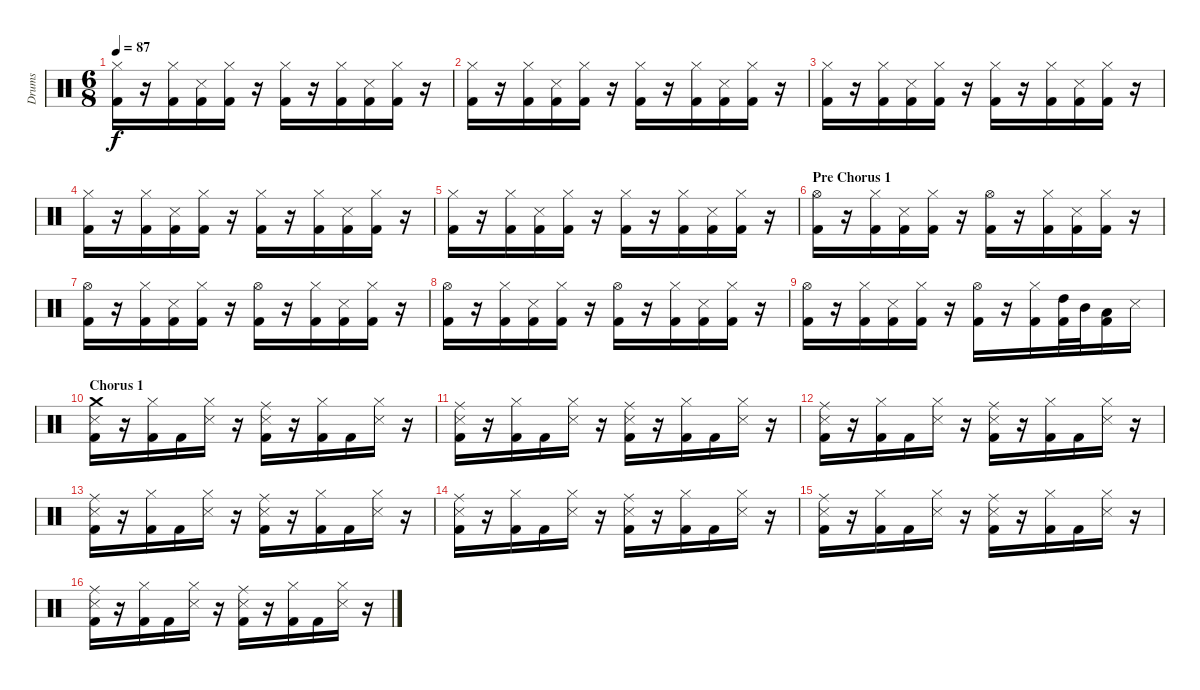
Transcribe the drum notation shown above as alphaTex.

\track ("Drums" "Drums") {instrument percussion}
\staff {score}
\articulation defaults
\ts (6 8)
\tempo 87
\clef neutral
\ks c
("Hi-Hat (closed)" "Kick (hit) 2").16{dy f} r.16 ("Hi-Hat (closed)" "Kick (hit) 2").16 ("Snare (side stick) 3" "Kick (hit) 2").16 ("Hi-Hat (closed)" "Kick (hit) 2").16 r.16 ("Hi-Hat (closed)" "Kick (hit) 2").16 r.16 ("Hi-Hat (closed)" "Kick (hit) 2").16 ("Snare (side stick) 3" "Kick (hit) 2").16 ("Hi-Hat (closed)" "Kick (hit) 2").16 r.16 |
("Hi-Hat (closed)" "Kick (hit) 2").16 r.16 ("Hi-Hat (closed)" "Kick (hit) 2").16 ("Snare (side stick) 3" "Kick (hit) 2").16 ("Hi-Hat (closed)" "Kick (hit) 2").16 r.16 ("Hi-Hat (closed)" "Kick (hit) 2").16 r.16 ("Hi-Hat (closed)" "Kick (hit) 2").16 ("Snare (side stick) 3" "Kick (hit) 2").16 ("Hi-Hat (closed)" "Kick (hit) 2").16 r.16 |
("Hi-Hat (closed)" "Kick (hit) 2").16 r.16 ("Hi-Hat (closed)" "Kick (hit) 2").16 ("Snare (side stick) 3" "Kick (hit) 2").16 ("Hi-Hat (closed)" "Kick (hit) 2").16 r.16 ("Hi-Hat (closed)" "Kick (hit) 2").16 r.16 ("Hi-Hat (closed)" "Kick (hit) 2").16 ("Snare (side stick) 3" "Kick (hit) 2").16 ("Hi-Hat (closed)" "Kick (hit) 2").16 r.16 |
("Hi-Hat (closed)" "Kick (hit) 2").16 r.16 ("Hi-Hat (closed)" "Kick (hit) 2").16 ("Snare (side stick) 3" "Kick (hit) 2").16 ("Hi-Hat (closed)" "Kick (hit) 2").16 r.16 ("Hi-Hat (closed)" "Kick (hit) 2").16 r.16 ("Hi-Hat (closed)" "Kick (hit) 2").16 ("Snare (side stick) 3" "Kick (hit) 2").16 ("Hi-Hat (closed)" "Kick (hit) 2").16 r.16 |
("Hi-Hat (closed)" "Kick (hit) 2").16 r.16 ("Hi-Hat (closed)" "Kick (hit) 2").16 ("Snare (side stick) 3" "Kick (hit) 2").16 ("Hi-Hat (closed)" "Kick (hit) 2").16 r.16 ("Hi-Hat (closed)" "Kick (hit) 2").16 r.16 ("Hi-Hat (closed)" "Kick (hit) 2").16 ("Snare (side stick) 3" "Kick (hit) 2").16 ("Hi-Hat (closed)" "Kick (hit) 2").16 r.16 |
\section ("" "Pre Chorus 1")
("Hi-Hat (open)" "Kick (hit) 2").16 r.16 ("Hi-Hat (closed)" "Kick (hit) 2").16 ("Snare (side stick) 3" "Kick (hit) 2").16 ("Hi-Hat (closed)" "Kick (hit) 2").16 r.16 ("Hi-Hat (open)" "Kick (hit) 2").16 r.16 ("Hi-Hat (closed)" "Kick (hit) 2").16 ("Snare (side stick) 3" "Kick (hit) 2").16 ("Hi-Hat (closed)" "Kick (hit) 2").16 r.16 |
("Hi-Hat (open)" "Kick (hit) 2").16 r.16 ("Hi-Hat (closed)" "Kick (hit) 2").16 ("Snare (side stick) 3" "Kick (hit) 2").16 ("Hi-Hat (closed)" "Kick (hit) 2").16 r.16 ("Hi-Hat (open)" "Kick (hit) 2").16 r.16 ("Hi-Hat (closed)" "Kick (hit) 2").16 ("Snare (side stick) 3" "Kick (hit) 2").16 ("Hi-Hat (closed)" "Kick (hit) 2").16 r.16 |
("Hi-Hat (open)" "Kick (hit) 2").16 r.16 ("Hi-Hat (closed)" "Kick (hit) 2").16 ("Snare (side stick) 3" "Kick (hit) 2").16 ("Hi-Hat (closed)" "Kick (hit) 2").16 r.16 ("Hi-Hat (open)" "Kick (hit) 2").16 r.16 ("Hi-Hat (closed)" "Kick (hit) 2").16 ("Snare (side stick) 3" "Kick (hit) 2").16 ("Hi-Hat (closed)" "Kick (hit) 2").16 r.16 |
("Hi-Hat (open)" "Kick (hit) 2").16 r.16 ("Hi-Hat (closed)" "Kick (hit) 2").16 ("Snare (side stick) 3" "Kick (hit) 2").16 ("Hi-Hat (closed)" "Kick (hit) 2").16 r.16 ("Hi-Hat (open)" "Kick (hit) 2").16 r.16 ("Hi-Hat (closed)" "Kick (hit) 2").16 ("High Tom (hit)" "Kick (hit) 2").32 "Mid Tom (hit)".32 ("Low Tom (hit)" "Kick (hit) 2").16 "Snare (side stick) 3".16 |
\section ("" "Chorus 1")
("Crash medium (hit)" "Snare (side stick) 3" "Kick (hit) 2").16 r.16 ("Hi-Hat (closed)" "Kick (hit) 2").16 "Kick (hit) 2".16 ("Hi-Hat (closed)" "Snare (side stick) 3").16 r.16 ("Ride (middle)" "Snare (side stick) 3" "Kick (hit) 2").16 r.16 ("Hi-Hat (closed)" "Kick (hit) 2").16 "Kick (hit) 2".16 ("Hi-Hat (closed)" "Snare (side stick) 3").16 r.16 |
("Ride (middle)" "Snare (side stick) 3" "Kick (hit) 2").16 r.16 ("Hi-Hat (closed)" "Kick (hit) 2").16 "Kick (hit) 2".16 ("Hi-Hat (closed)" "Snare (side stick) 3").16 r.16 ("Ride (middle)" "Snare (side stick) 3" "Kick (hit) 2").16 r.16 ("Hi-Hat (closed)" "Kick (hit) 2").16 "Kick (hit) 2".16 ("Hi-Hat (closed)" "Snare (side stick) 3").16 r.16 |
("Ride (middle)" "Snare (side stick) 3" "Kick (hit) 2").16 r.16 ("Hi-Hat (closed)" "Kick (hit) 2").16 "Kick (hit) 2".16 ("Hi-Hat (closed)" "Snare (side stick) 3").16 r.16 ("Ride (middle)" "Snare (side stick) 3" "Kick (hit) 2").16 r.16 ("Hi-Hat (closed)" "Kick (hit) 2").16 "Kick (hit) 2".16 ("Hi-Hat (closed)" "Snare (side stick) 3").16 r.16 |
("Ride (middle)" "Snare (side stick) 3" "Kick (hit) 2").16 r.16 ("Hi-Hat (closed)" "Kick (hit) 2").16 "Kick (hit) 2".16 ("Hi-Hat (closed)" "Snare (side stick) 3").16 r.16 ("Ride (middle)" "Snare (side stick) 3" "Kick (hit) 2").16 r.16 ("Hi-Hat (closed)" "Kick (hit) 2").16 "Kick (hit) 2".16 ("Hi-Hat (closed)" "Snare (side stick) 3").16 r.16 |
("Ride (middle)" "Snare (side stick) 3" "Kick (hit) 2").16 r.16 ("Hi-Hat (closed)" "Kick (hit) 2").16 "Kick (hit) 2".16 ("Hi-Hat (closed)" "Snare (side stick) 3").16 r.16 ("Ride (middle)" "Snare (side stick) 3" "Kick (hit) 2").16 r.16 ("Hi-Hat (closed)" "Kick (hit) 2").16 "Kick (hit) 2".16 ("Hi-Hat (closed)" "Snare (side stick) 3").16 r.16 |
("Ride (middle)" "Snare (side stick) 3" "Kick (hit) 2").16 r.16 ("Hi-Hat (closed)" "Kick (hit) 2").16 "Kick (hit) 2".16 ("Hi-Hat (closed)" "Snare (side stick) 3").16 r.16 ("Ride (middle)" "Snare (side stick) 3" "Kick (hit) 2").16 r.16 ("Hi-Hat (closed)" "Kick (hit) 2").16 "Kick (hit) 2".16 ("Hi-Hat (closed)" "Snare (side stick) 3").16 r.16 |
("Ride (middle)" "Snare (side stick) 3" "Kick (hit) 2").16 r.16 ("Hi-Hat (closed)" "Kick (hit) 2").16 "Kick (hit) 2".16 ("Hi-Hat (closed)" "Snare (side stick) 3").16 r.16 ("Ride (middle)" "Snare (side stick) 3" "Kick (hit) 2").16 r.16 ("Hi-Hat (closed)" "Kick (hit) 2").16 "Kick (hit) 2".16 ("Hi-Hat (closed)" "Snare (side stick) 3").16 r.16
